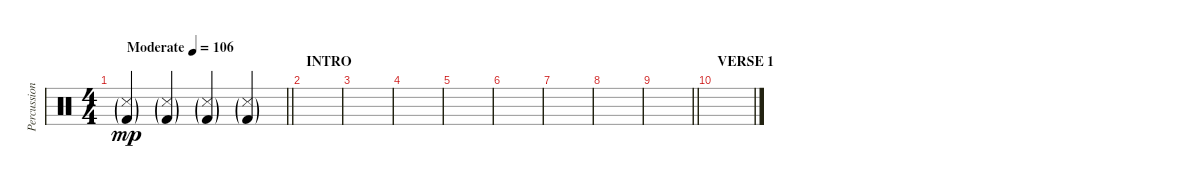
\track ("Percussion" "Percussion") {instrument percussion}
\staff {score}
\articulation defaults
\ts (4 4)
\tempo (106 "Moderate")
\clef neutral
\barLineRight lightlight
\ks c
("Snare (side stick) 3"{g} "Kick (hit) 2"{g}).4{dy mp} ("Snare (side stick) 3"{g} "Kick (hit) 2"{g}).4 ("Snare (side stick) 3"{g} "Kick (hit) 2"{g}).4 ("Snare (side stick) 3"{g} "Kick (hit) 2"{g}).4 |
\section ("" "INTRO")
|
|
|
|
|
|
|
\barLineRight lightlight
|
\section ("" "VERSE 1")
